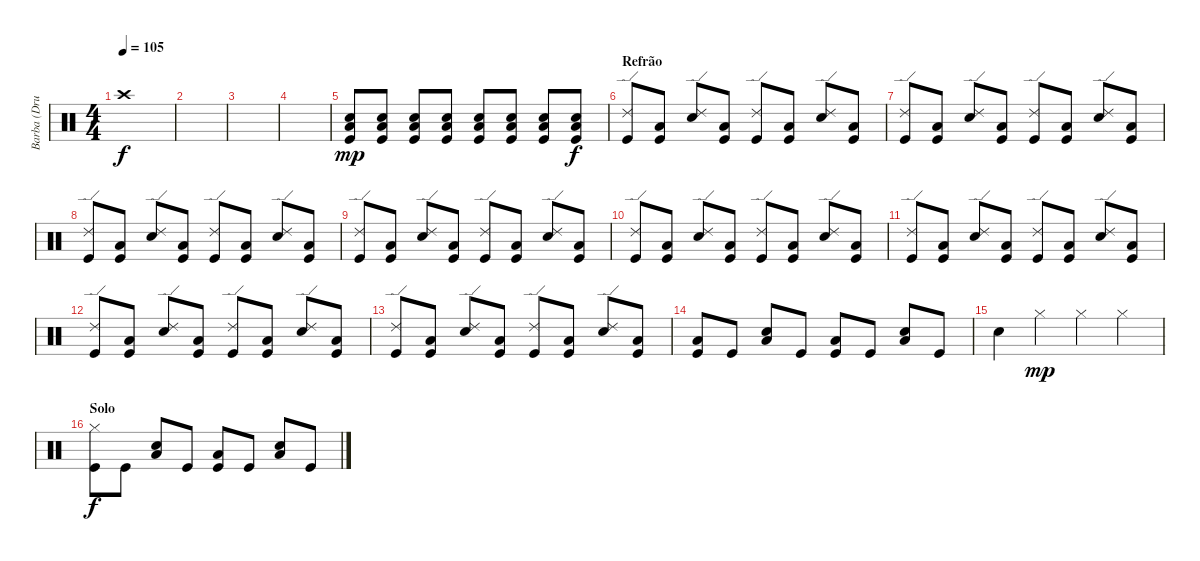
\track ("Barba (Drums)" "Barba (Dru") {instrument percussion}
\staff {score}
\articulation defaults
\ts (4 4)
\tempo 105
\clef neutral
\ks c "Crash high (hit)".1{dy f volume 11}
|
|
|
|
("Electric Snare (hit)" "Low Floor Tom (hit)" "Kick (hit)").8{dy mp} ("Electric Snare (hit)" "Low Floor Tom (hit)" "Kick (hit)").8 ("Electric Snare (hit)" "Low Floor Tom (hit)" "Kick (hit)").8 ("Electric Snare (hit)" "Low Floor Tom (hit)" "Kick (hit)").8 ("Electric Snare (hit)" "Low Floor Tom (hit)" "Kick (hit)").8 ("Electric Snare (hit)" "Low Floor Tom (hit)" "Kick (hit)").8 ("Electric Snare (hit)" "Low Floor Tom (hit)" "Kick (hit)").8 ("Electric Snare (hit)" "Low Floor Tom (hit)" "Kick (hit)").8{dy f} |
\section ("" "Refrão")
("Ride (edge) 2" "Kick (hit)").8{volume 13} ("Low Floor Tom (hit)" "Kick (hit)").8 ("Ride (edge) 2" "Electric Snare (hit)").8 ("Low Floor Tom (hit)" "Kick (hit)").8 ("Ride (edge) 2" "Kick (hit)").8 ("Low Floor Tom (hit)" "Kick (hit)").8 ("Ride (edge) 2" "Electric Snare (hit)").8 ("Low Floor Tom (hit)" "Kick (hit)").8 |
("Ride (edge) 2" "Kick (hit)").8 ("Low Floor Tom (hit)" "Kick (hit)").8 ("Ride (edge) 2" "Electric Snare (hit)").8 ("Low Floor Tom (hit)" "Kick (hit)").8 ("Ride (edge) 2" "Kick (hit)").8 ("Low Floor Tom (hit)" "Kick (hit)").8 ("Ride (edge) 2" "Electric Snare (hit)").8 ("Low Floor Tom (hit)" "Kick (hit)").8 |
("Ride (edge) 2" "Kick (hit)").8{volume 13} ("Low Floor Tom (hit)" "Kick (hit)").8 ("Ride (edge) 2" "Electric Snare (hit)").8 ("Low Floor Tom (hit)" "Kick (hit)").8 ("Ride (edge) 2" "Kick (hit)").8 ("Low Floor Tom (hit)" "Kick (hit)").8 ("Ride (edge) 2" "Electric Snare (hit)").8 ("Low Floor Tom (hit)" "Kick (hit)").8 |
("Ride (edge) 2" "Kick (hit)").8 ("Low Floor Tom (hit)" "Kick (hit)").8 ("Ride (edge) 2" "Electric Snare (hit)").8 ("Low Floor Tom (hit)" "Kick (hit)").8 ("Ride (edge) 2" "Kick (hit)").8 ("Low Floor Tom (hit)" "Kick (hit)").8 ("Ride (edge) 2" "Electric Snare (hit)").8 ("Low Floor Tom (hit)" "Kick (hit)").8 |
("Ride (edge) 2" "Kick (hit)").8{volume 13} ("Low Floor Tom (hit)" "Kick (hit)").8 ("Ride (edge) 2" "Electric Snare (hit)").8 ("Low Floor Tom (hit)" "Kick (hit)").8 ("Ride (edge) 2" "Kick (hit)").8 ("Low Floor Tom (hit)" "Kick (hit)").8 ("Ride (edge) 2" "Electric Snare (hit)").8 ("Low Floor Tom (hit)" "Kick (hit)").8 |
("Ride (edge) 2" "Kick (hit)").8 ("Low Floor Tom (hit)" "Kick (hit)").8 ("Ride (edge) 2" "Electric Snare (hit)").8 ("Low Floor Tom (hit)" "Kick (hit)").8 ("Ride (edge) 2" "Kick (hit)").8 ("Low Floor Tom (hit)" "Kick (hit)").8 ("Ride (edge) 2" "Electric Snare (hit)").8 ("Low Floor Tom (hit)" "Kick (hit)").8 |
("Ride (edge) 2" "Kick (hit)").8{volume 13} ("Low Floor Tom (hit)" "Kick (hit)").8 ("Ride (edge) 2" "Electric Snare (hit)").8 ("Low Floor Tom (hit)" "Kick (hit)").8 ("Ride (edge) 2" "Kick (hit)").8 ("Low Floor Tom (hit)" "Kick (hit)").8 ("Ride (edge) 2" "Electric Snare (hit)").8 ("Low Floor Tom (hit)" "Kick (hit)").8 |
("Ride (edge) 2" "Kick (hit)").8 ("Low Floor Tom (hit)" "Kick (hit)").8 ("Ride (edge) 2" "Electric Snare (hit)").8 ("Low Floor Tom (hit)" "Kick (hit)").8 ("Ride (edge) 2" "Kick (hit)").8 ("Low Floor Tom (hit)" "Kick (hit)").8 ("Ride (edge) 2" "Electric Snare (hit)").8 ("Low Floor Tom (hit)" "Kick (hit)").8 |
("Low Floor Tom (hit)" "Kick (hit)").8{volume 13} "Kick (hit)".8 ("Low Floor Tom (hit)" "Electric Snare (hit)").8 "Kick (hit)".8 ("Low Floor Tom (hit)" "Kick (hit)").8 "Kick (hit)".8 ("Low Floor Tom (hit)" "Electric Snare (hit)").8 "Kick (hit)".8 |
"Electric Snare (hit)".4 "Hi-Hat (closed)".4{dy mp} "Hi-Hat (closed)".4 "Hi-Hat (closed)".4 |
\section ("" "Solo")
("Hi-Hat (closed)" "Kick (hit)").8{dy f volume 13} "Kick (hit)".8 ("Low Floor Tom (hit)" "Electric Snare (hit)").8 "Kick (hit)".8 ("Low Floor Tom (hit)" "Kick (hit)").8 "Kick (hit)".8 ("Low Floor Tom (hit)" "Electric Snare (hit)").8 "Kick (hit)".8
